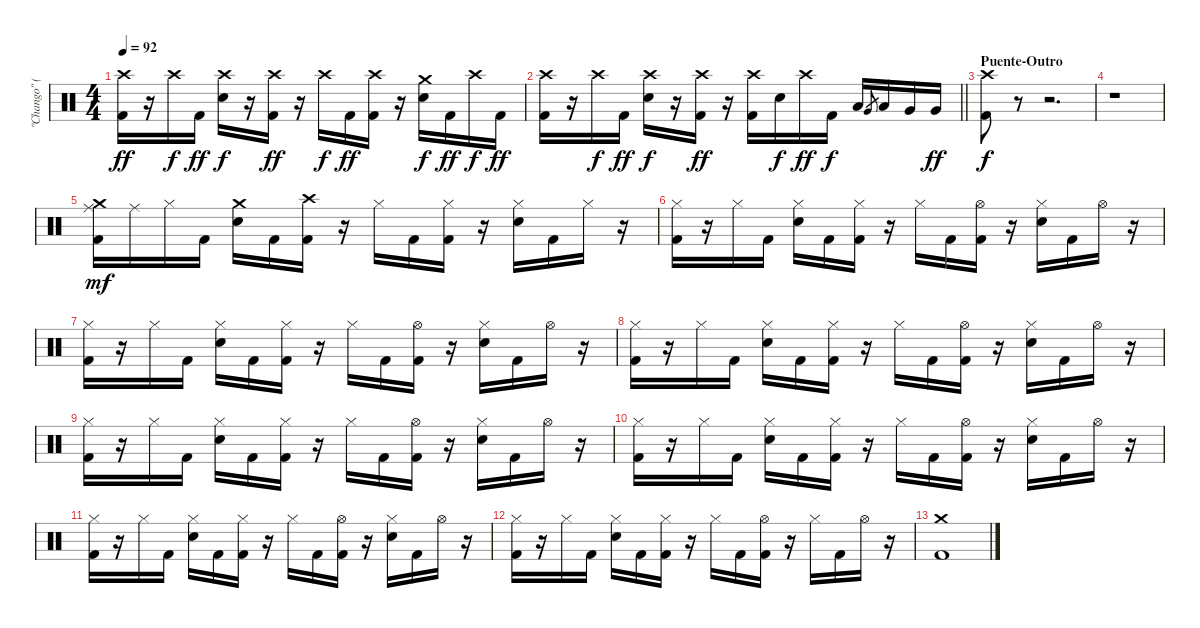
\track ("\"Chango\" (Bateria)" "\"Chango\" (") {instrument percussion}
\staff {score}
\articulation defaults
\ts (4 4)
\tempo 92
\clef neutral
\ks c
("Crash high (hit)" "Kick (hit) 2").16{dy ff} r.16 "Crash high (hit)".16{dy f} "Kick (hit) 2".16{dy ff} ("Crash high (hit)" "Electric Snare (hit)").16{dy f} r.16 ("Crash high (hit)" "Kick (hit) 2").16{dy ff} r.16 "Crash high (hit)".16{dy f} "Kick (hit) 2".16{dy ff} ("Crash high (hit)" "Kick (hit) 2").16 r.16 ("Crash medium (hit)" "Electric Snare (hit)").16{dy f} "Kick (hit) 2".16{dy ff} "Crash high (hit)".16{dy f} "Kick (hit) 2".16{dy ff} |
\barLineRight lightlight
("Crash high (hit)" "Kick (hit) 2").16 r.16 "Crash high (hit)".16{dy f} "Kick (hit) 2".16{dy ff} ("Crash high (hit)" "Electric Snare (hit)").16{dy f} r.16 ("Crash high (hit)" "Kick (hit) 2").16{dy ff} r.16 ("Crash high (hit)" "Kick (hit) 2").16 "Electric Snare (hit)".16{dy f} "Crash high (hit)".16{dy ff} "Kick (hit) 2".16{dy f} "Low Tom (hit)".16 "Very Low Tom (hit)".8{gr} "Low Tom (hit)".16 "Very Low Tom (hit)".16 "Very Low Tom (hit)".16{dy ff} |
\section ("" "Puente-Outro")
("Crash high (hit)" "Kick (hit) 2").8{dy f} r.8 r.2{d} |
r.1 |
("Crash medium (hit)" "Ride (middle)" "Kick (hit) 2").16{dy mf} "Ride (middle)".16 "Hi-Hat (closed)".16 "Kick (hit) 2".16 ("Crash medium (hit)" "Electric Snare (hit)").16 "Kick (hit) 2".16 ("Crash high (hit)" "Kick (hit) 2").16 r.16 "Hi-Hat (closed)".16 "Kick (hit) 2".16 ("Hi-Hat (closed)" "Kick (hit) 2").16 r.16 ("Hi-Hat (closed)" "Electric Snare (hit)").16 "Kick (hit) 2".16 "Hi-Hat (closed)".16 r.16 |
("Hi-Hat (closed)" "Kick (hit) 2").16 r.16 "Hi-Hat (closed)".16 "Kick (hit) 2".16 ("Hi-Hat (closed)" "Electric Snare (hit)").16 "Kick (hit) 2".16 ("Hi-Hat (closed)" "Kick (hit) 2").16 r.16 "Hi-Hat (closed)".16 "Kick (hit) 2".16 ("Hi-Hat (open)" "Kick (hit) 2").16 r.16 ("Hi-Hat (closed)" "Electric Snare (hit)").16 "Kick (hit) 2".16 "Hi-Hat (open)".16 r.16 |
("Hi-Hat (closed)" "Kick (hit) 2").16 r.16 "Hi-Hat (closed)".16 "Kick (hit) 2".16 ("Hi-Hat (closed)" "Electric Snare (hit)").16 "Kick (hit) 2".16 ("Hi-Hat (closed)" "Kick (hit) 2").16 r.16 "Hi-Hat (closed)".16 "Kick (hit) 2".16 ("Hi-Hat (open)" "Kick (hit) 2").16 r.16 ("Hi-Hat (closed)" "Electric Snare (hit)").16 "Kick (hit) 2".16 "Hi-Hat (open)".16 r.16 |
("Hi-Hat (closed)" "Kick (hit) 2").16 r.16 "Hi-Hat (closed)".16 "Kick (hit) 2".16 ("Hi-Hat (closed)" "Electric Snare (hit)").16 "Kick (hit) 2".16 ("Hi-Hat (closed)" "Kick (hit) 2").16 r.16 "Hi-Hat (closed)".16 "Kick (hit) 2".16 ("Hi-Hat (open)" "Kick (hit) 2").16 r.16 ("Hi-Hat (closed)" "Electric Snare (hit)").16 "Kick (hit) 2".16 "Hi-Hat (open)".16 r.16 |
("Hi-Hat (closed)" "Kick (hit) 2").16 r.16 "Hi-Hat (closed)".16 "Kick (hit) 2".16 ("Hi-Hat (closed)" "Electric Snare (hit)").16 "Kick (hit) 2".16 ("Hi-Hat (closed)" "Kick (hit) 2").16 r.16 "Hi-Hat (closed)".16 "Kick (hit) 2".16 ("Hi-Hat (open)" "Kick (hit) 2").16 r.16 ("Hi-Hat (closed)" "Electric Snare (hit)").16 "Kick (hit) 2".16 "Hi-Hat (open)".16 r.16 |
("Hi-Hat (closed)" "Kick (hit) 2").16 r.16 "Hi-Hat (closed)".16 "Kick (hit) 2".16 ("Hi-Hat (closed)" "Electric Snare (hit)").16 "Kick (hit) 2".16 ("Hi-Hat (closed)" "Kick (hit) 2").16 r.16 "Hi-Hat (closed)".16 "Kick (hit) 2".16 ("Hi-Hat (open)" "Kick (hit) 2").16 r.16 ("Hi-Hat (closed)" "Electric Snare (hit)").16 "Kick (hit) 2".16 "Hi-Hat (open)".16 r.16 |
("Hi-Hat (closed)" "Kick (hit) 2").16 r.16 "Hi-Hat (closed)".16 "Kick (hit) 2".16 ("Hi-Hat (closed)" "Electric Snare (hit)").16 "Kick (hit) 2".16 ("Hi-Hat (closed)" "Kick (hit) 2").16 r.16 "Hi-Hat (closed)".16 "Kick (hit) 2".16 ("Hi-Hat (open)" "Kick (hit) 2").16 r.16 ("Hi-Hat (closed)" "Electric Snare (hit)").16 "Kick (hit) 2".16 "Hi-Hat (open)".16 r.16 |
("Hi-Hat (closed)" "Kick (hit) 2").16 r.16 "Hi-Hat (closed)".16 "Kick (hit) 2".16 ("Hi-Hat (closed)" "Electric Snare (hit)").16 "Kick (hit) 2".16 ("Hi-Hat (closed)" "Kick (hit) 2").16 r.16 "Hi-Hat (closed)".16 "Kick (hit) 2".16 ("Hi-Hat (open)" "Kick (hit) 2").16 r.16 "Hi-Hat (closed)".16 "Kick (hit) 2".16 "Hi-Hat (open)".16 r.16 |
("Crash medium (hit)" "Kick (hit) 2").1{volume 7}
